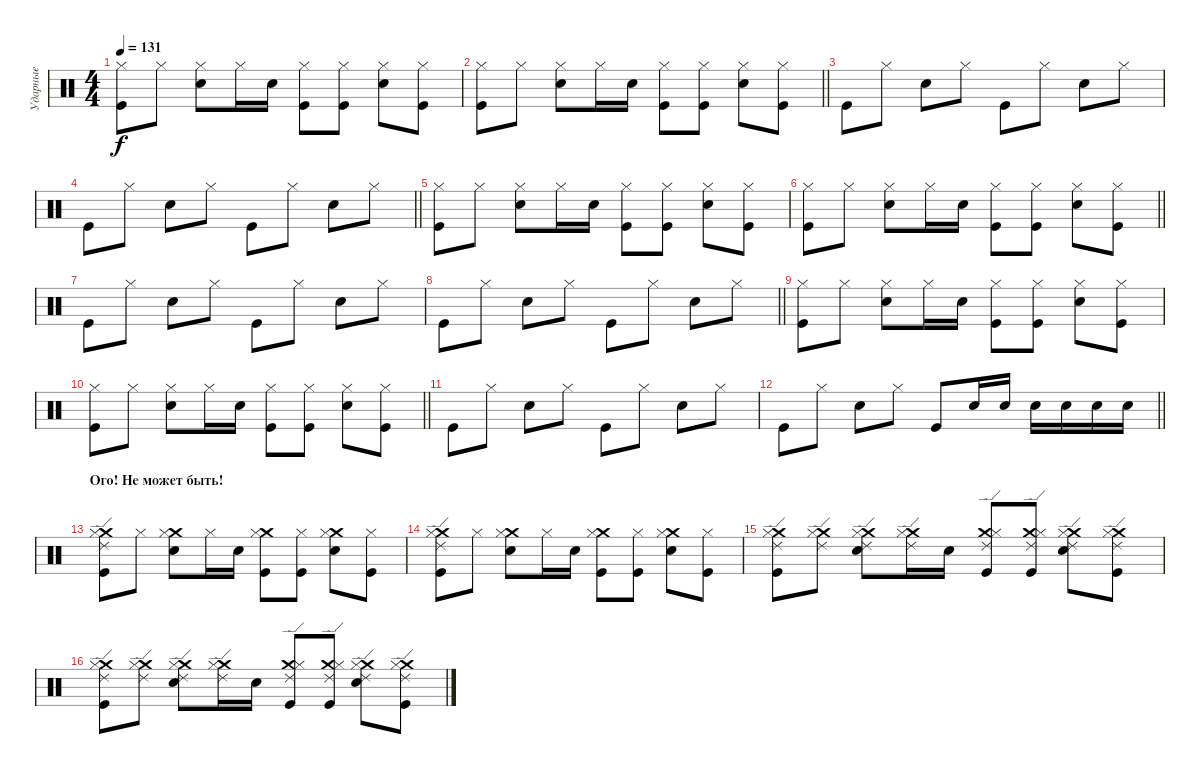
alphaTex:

\track ("Ударные" "Ударные") {instrument percussion}
\staff {score}
\articulation defaults
\ts (4 4)
\tempo 131
\clef neutral
\ks c
("Kick (hit)" "Hi-Hat (closed)").8{dy f} "Hi-Hat (closed)".8 ("Snare (hit) 2" "Hi-Hat (closed)").8 "Hi-Hat (closed)".16 "Snare (hit) 2".16 ("Kick (hit)" "Hi-Hat (closed)").8 ("Kick (hit)" "Hi-Hat (closed)").8 ("Snare (hit) 2" "Hi-Hat (closed)").8 ("Kick (hit)" "Hi-Hat (closed)").8 |
\barLineRight lightlight
("Kick (hit)" "Hi-Hat (closed)").8 "Hi-Hat (closed)".8 ("Snare (hit) 2" "Hi-Hat (closed)").8 "Hi-Hat (closed)".16 "Snare (hit) 2".16 ("Kick (hit)" "Hi-Hat (closed)").8 ("Kick (hit)" "Hi-Hat (closed)").8 ("Snare (hit) 2" "Hi-Hat (closed)").8 ("Kick (hit)" "Hi-Hat (closed)").8 |
"Kick (hit)".8 "Hi-Hat (closed)".8 "Snare (hit) 2".8 "Hi-Hat (closed)".8 "Kick (hit)".8 "Hi-Hat (closed)".8 "Snare (hit) 2".8 "Hi-Hat (closed)".8 |
\barLineRight lightlight "Kick (hit)".8 "Hi-Hat (closed)".8 "Snare (hit) 2".8 "Hi-Hat (closed)".8 "Kick (hit)".8 "Hi-Hat (closed)".8 "Snare (hit) 2".8 "Hi-Hat (closed)".8
|
("Kick (hit)" "Hi-Hat (closed)").8 "Hi-Hat (closed)".8 ("Snare (hit) 2" "Hi-Hat (closed)").8 "Hi-Hat (closed)".16 "Snare (hit) 2".16 ("Kick (hit)" "Hi-Hat (closed)").8 ("Kick (hit)" "Hi-Hat (closed)").8 ("Snare (hit) 2" "Hi-Hat (closed)").8 ("Kick (hit)" "Hi-Hat (closed)").8 |
\barLineRight lightlight
("Kick (hit)" "Hi-Hat (closed)").8 "Hi-Hat (closed)".8 ("Snare (hit) 2" "Hi-Hat (closed)").8 "Hi-Hat (closed)".16 "Snare (hit) 2".16 ("Kick (hit)" "Hi-Hat (closed)").8 ("Kick (hit)" "Hi-Hat (closed)").8 ("Snare (hit) 2" "Hi-Hat (closed)").8 ("Kick (hit)" "Hi-Hat (closed)").8 |
"Kick (hit)".8 "Hi-Hat (closed)".8 "Snare (hit) 2".8 "Hi-Hat (closed)".8 "Kick (hit)".8 "Hi-Hat (closed)".8 "Snare (hit) 2".8 "Hi-Hat (closed)".8 |
\barLineRight lightlight "Kick (hit)".8 "Hi-Hat (closed)".8 "Snare (hit) 2".8 "Hi-Hat (closed)".8 "Kick (hit)".8 "Hi-Hat (closed)".8 "Snare (hit) 2".8 "Hi-Hat (closed)".8
|
("Kick (hit)" "Hi-Hat (closed)").8 "Hi-Hat (closed)".8 ("Snare (hit) 2" "Hi-Hat (closed)").8 "Hi-Hat (closed)".16 "Snare (hit) 2".16 ("Kick (hit)" "Hi-Hat (closed)").8 ("Kick (hit)" "Hi-Hat (closed)").8 ("Snare (hit) 2" "Hi-Hat (closed)").8 ("Kick (hit)" "Hi-Hat (closed)").8 |
\barLineRight lightlight
("Kick (hit)" "Hi-Hat (closed)").8 "Hi-Hat (closed)".8 ("Snare (hit) 2" "Hi-Hat (closed)").8 "Hi-Hat (closed)".16 "Snare (hit) 2".16 ("Kick (hit)" "Hi-Hat (closed)").8 ("Kick (hit)" "Hi-Hat (closed)").8 ("Snare (hit) 2" "Hi-Hat (closed)").8 ("Kick (hit)" "Hi-Hat (closed)").8 |
"Kick (hit)".8 "Hi-Hat (closed)".8 "Snare (hit) 2".8 "Hi-Hat (closed)".8 "Kick (hit)".8 "Hi-Hat (closed)".8 "Snare (hit) 2".8 "Hi-Hat (closed)".8 |
\barLineRight lightlight "Kick (hit)".8 "Hi-Hat (closed)".8 "Snare (hit) 2".8 "Hi-Hat (closed)".8 "Kick (hit)".8 "Electric Snare (hit)".16 "Electric Snare (hit)".16 "Electric Snare (hit)".16 "Electric Snare (hit)".16 "Electric Snare (hit)".16 "Electric Snare (hit)".16
|
\section ("" "Ого! Не может быть!")
("Crash medium (hit)" "Kick (hit)" "Hi-Hat (closed)" "Ride (edge) 2").8 "Hi-Hat (closed)".8 ("Crash medium (hit)" "Snare (hit) 2" "Hi-Hat (closed)").8 "Hi-Hat (closed)".16 "Snare (hit) 2".16 ("Crash medium (hit)" "Kick (hit)" "Hi-Hat (closed)").8 ("Kick (hit)" "Hi-Hat (closed)").8 ("Crash medium (hit)" "Snare (hit) 2" "Hi-Hat (closed)").8 ("Kick (hit)" "Hi-Hat (closed)").8 |
("Crash medium (hit)" "Kick (hit)" "Hi-Hat (closed)" "Ride (edge) 2").8 "Hi-Hat (closed)".8 ("Crash medium (hit)" "Snare (hit) 2" "Hi-Hat (closed)").8 "Hi-Hat (closed)".16 "Snare (hit) 2".16 ("Crash medium (hit)" "Kick (hit)" "Hi-Hat (closed)").8 ("Kick (hit)" "Hi-Hat (closed)").8 ("Crash medium (hit)" "Snare (hit) 2" "Hi-Hat (closed)").8 ("Kick (hit)" "Hi-Hat (closed)").8 |
("Crash medium (hit)" "Kick (hit)" "Hi-Hat (closed)" "Ride (edge) 2").8 ("Crash medium (hit)" "Hi-Hat (closed)" "Ride (edge) 2").8 ("Crash medium (hit)" "Snare (hit) 2" "Hi-Hat (closed)" "Ride (edge) 2").8 ("Crash medium (hit)" "Hi-Hat (closed)" "Ride (edge) 2").16 "Snare (hit) 2".16 ("Crash medium (hit)" "Kick (hit)" "Hi-Hat (closed)" "Ride (edge) 2").8 ("Crash medium (hit)" "Kick (hit)" "Hi-Hat (closed)" "Ride (edge) 2").8 ("Crash medium (hit)" "Snare (hit) 2" "Hi-Hat (closed)" "Ride (edge) 2").8 ("Crash medium (hit)" "Kick (hit)" "Hi-Hat (closed)" "Ride (edge) 2").8 |
("Crash medium (hit)" "Kick (hit)" "Hi-Hat (closed)" "Ride (edge) 2").8 ("Crash medium (hit)" "Hi-Hat (closed)" "Ride (edge) 2").8 ("Crash medium (hit)" "Snare (hit) 2" "Hi-Hat (closed)" "Ride (edge) 2").8 ("Crash medium (hit)" "Hi-Hat (closed)" "Ride (edge) 2").16 "Snare (hit) 2".16 ("Crash medium (hit)" "Kick (hit)" "Hi-Hat (closed)" "Ride (edge) 2").8 ("Crash medium (hit)" "Kick (hit)" "Hi-Hat (closed)" "Ride (edge) 2").8 ("Crash medium (hit)" "Snare (hit) 2" "Hi-Hat (closed)" "Ride (edge) 2").8 ("Crash medium (hit)" "Kick (hit)" "Hi-Hat (closed)" "Ride (edge) 2").8
